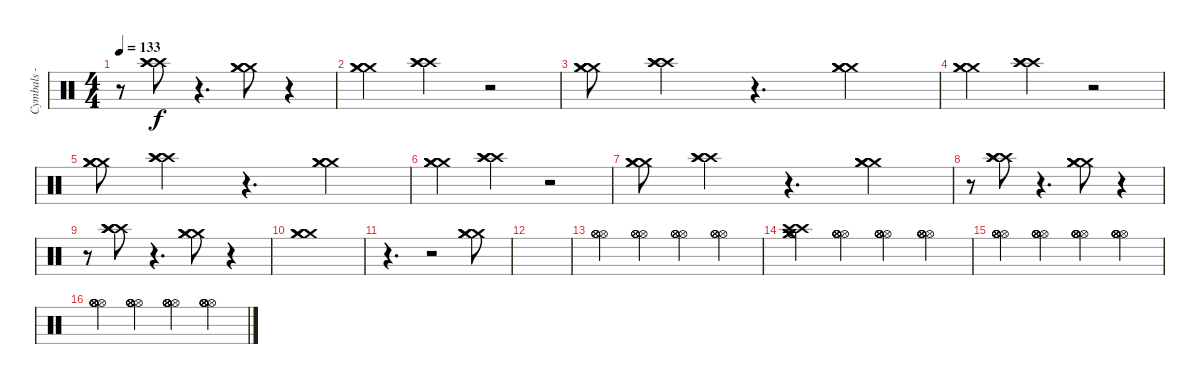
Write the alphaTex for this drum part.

\track ("Cymbals - Joe Daniels" "Cymbals - ") {instrument percussion}
\staff {score}
\articulation defaults
\ts (4 4)
\tempo 133
\clef neutral
\ks c
r.8{dy f} ("Crash high (hit)" "Crash high (hit)" "Crash high (hit)" "Crash high (hit)").8 r.4{d} ("Crash medium (hit)" "Crash medium (hit)" "Crash medium (hit)" "Crash medium (hit)").8 r.4 |
("Crash medium (hit)" "Crash medium (hit)" "Crash medium (hit)" "Crash medium (hit)").4 ("Crash high (hit)" "Crash high (hit)" "Crash high (hit)" "Crash high (hit)").4 r.2 |
("Crash medium (hit)" "Crash medium (hit)" "Crash medium (hit)" "Crash medium (hit)").8 ("Crash high (hit)" "Crash high (hit)" "Crash high (hit)" "Crash high (hit)").4 r.4{d} ("Crash medium (hit)" "Crash medium (hit)" "Crash medium (hit)" "Crash medium (hit)").4 |
("Crash medium (hit)" "Crash medium (hit)" "Crash medium (hit)" "Crash medium (hit)").4 ("Crash high (hit)" "Crash high (hit)" "Crash high (hit)" "Crash high (hit)").4 r.2 |
("Crash medium (hit)" "Crash medium (hit)" "Crash medium (hit)" "Crash medium (hit)").8 ("Crash high (hit)" "Crash high (hit)" "Crash high (hit)" "Crash high (hit)").4 r.4{d} ("Crash medium (hit)" "Crash medium (hit)" "Crash medium (hit)" "Crash medium (hit)").4 |
("Crash medium (hit)" "Crash medium (hit)" "Crash medium (hit)" "Crash medium (hit)").4 ("Crash high (hit)" "Crash high (hit)" "Crash high (hit)" "Crash high (hit)").4 r.2 |
("Crash medium (hit)" "Crash medium (hit)" "Crash medium (hit)" "Crash medium (hit)").8 ("Crash high (hit)" "Crash high (hit)" "Crash high (hit)" "Crash high (hit)").4 r.4{d} ("Crash medium (hit)" "Crash medium (hit)" "Crash medium (hit)" "Crash medium (hit)").4 |
r.8 ("Crash high (hit)" "Crash high (hit)" "Crash high (hit)" "Crash high (hit)").8 r.4{d} ("Crash medium (hit)" "Crash medium (hit)" "Crash medium (hit)" "Crash medium (hit)").8 r.4 |
r.8 ("Crash high (hit)" "Crash high (hit)" "Crash high (hit)" "Crash high (hit)").8 r.4{d} ("Crash medium (hit)" "Crash medium (hit)" "Crash medium (hit)" "Crash medium (hit)").8 r.4 |
("Crash medium (hit)" "Crash medium (hit)" "Crash medium (hit)" "Crash medium (hit)").1 |
r.4{d} r.2 ("Crash medium (hit)" "Crash medium (hit)" "Crash medium (hit)" "Crash medium (hit)").8 |
|
("Hi-Hat (open)" "Hi-Hat (open)" "Hi-Hat (open)" "Hi-Hat (open)").4 ("Hi-Hat (open)" "Hi-Hat (open)" "Hi-Hat (open)" "Hi-Hat (open)").4 ("Hi-Hat (open)" "Hi-Hat (open)" "Hi-Hat (open)" "Hi-Hat (open)").4 ("Hi-Hat (open)" "Hi-Hat (open)" "Hi-Hat (open)" "Hi-Hat (open)").4 |
("Hi-Hat (open)" "Crash medium (hit)" "Crash medium (hit)" "Crash high (hit)" "Crash high (hit)" "Hi-Hat (open)").4 ("Hi-Hat (open)" "Hi-Hat (open)" "Hi-Hat (open)" "Hi-Hat (open)" "Hi-Hat (open)" "Hi-Hat (open)").4 ("Hi-Hat (open)" "Hi-Hat (open)" "Hi-Hat (open)" "Hi-Hat (open)" "Hi-Hat (open)" "Hi-Hat (open)").4 ("Hi-Hat (open)" "Hi-Hat (open)" "Hi-Hat (open)" "Hi-Hat (open)" "Hi-Hat (open)" "Hi-Hat (open)").4 |
("Hi-Hat (open)" "Hi-Hat (open)" "Hi-Hat (open)" "Hi-Hat (open)" "Hi-Hat (open)" "Hi-Hat (open)").4 ("Hi-Hat (open)" "Hi-Hat (open)" "Hi-Hat (open)" "Hi-Hat (open)" "Hi-Hat (open)" "Hi-Hat (open)").4 ("Hi-Hat (open)" "Hi-Hat (open)" "Hi-Hat (open)" "Hi-Hat (open)" "Hi-Hat (open)" "Hi-Hat (open)").4 ("Hi-Hat (open)" "Hi-Hat (open)" "Hi-Hat (open)" "Hi-Hat (open)" "Hi-Hat (open)" "Hi-Hat (open)").4 |
("Hi-Hat (open)" "Hi-Hat (open)" "Hi-Hat (open)" "Hi-Hat (open)" "Hi-Hat (open)" "Hi-Hat (open)").4 ("Hi-Hat (open)" "Hi-Hat (open)" "Hi-Hat (open)" "Hi-Hat (open)" "Hi-Hat (open)" "Hi-Hat (open)").4 ("Hi-Hat (open)" "Hi-Hat (open)" "Hi-Hat (open)" "Hi-Hat (open)" "Hi-Hat (open)" "Hi-Hat (open)").4 ("Hi-Hat (open)" "Hi-Hat (open)" "Hi-Hat (open)" "Hi-Hat (open)" "Hi-Hat (open)" "Hi-Hat (open)").4
